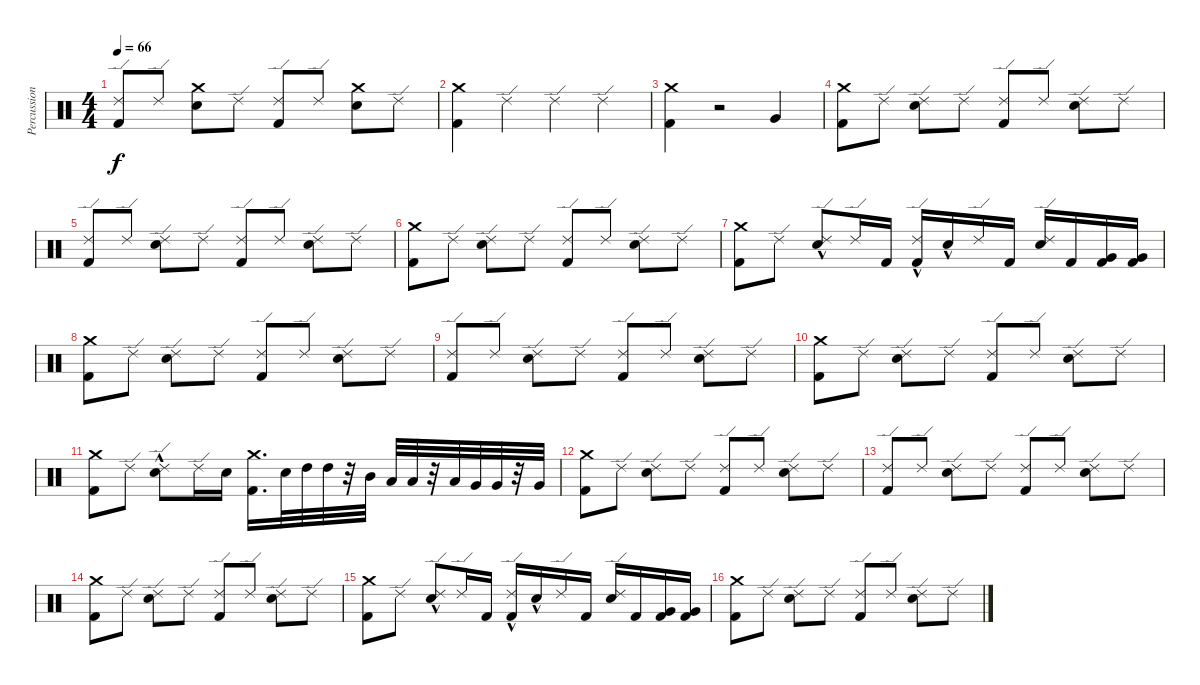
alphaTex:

\track ("Percussioni" "Percussion") {instrument percussion}
\staff {score}
\articulation defaults
\ts (4 4)
\tempo 66
\clef neutral
\ks c
("Ride (edge) 2" "Kick (hit) 2").8{dy f} "Ride (edge) 2".8 ("Crash medium (hit)" "Snare (hit) 2").8 "Ride (edge) 2".8 ("Ride (edge) 2" "Kick (hit) 2").8 "Ride (edge) 2".8 ("Crash medium (hit)" "Snare (hit) 2").8 "Ride (edge) 2".8 |
("Crash medium (hit)" "Kick (hit) 2").4 "Ride (edge) 2".4 "Ride (edge) 2".4 "Ride (edge) 2".4 |
("Crash medium (hit)" "Kick (hit) 2").4 r.2 "Very Low Tom (hit)".4 |
("Kick (hit) 2" "Crash medium (hit)").8 "Ride (edge) 2".8 ("Snare (hit) 2" "Ride (edge) 2").8 "Ride (edge) 2".8 ("Kick (hit) 2" "Ride (edge) 2").8 "Ride (edge) 2".8 ("Snare (hit) 2" "Ride (edge) 2").8 "Ride (edge) 2".8 |
("Ride (edge) 2" "Kick (hit) 2").8 "Ride (edge) 2".8 ("Ride (edge) 2" "Snare (hit) 2").8 "Ride (edge) 2".8 ("Ride (edge) 2" "Kick (hit) 2").8 "Ride (edge) 2".8 ("Ride (edge) 2" "Snare (hit) 2").8 "Ride (edge) 2".8 |
("Crash medium (hit)" "Kick (hit) 2").8 "Ride (edge) 2".8 ("Ride (edge) 2" "Snare (hit) 2").8 "Ride (edge) 2".8 ("Ride (edge) 2" "Kick (hit) 2").8 "Ride (edge) 2".8 ("Ride (edge) 2" "Snare (hit) 2").8 "Ride (edge) 2".8 |
("Kick (hit) 2" "Crash medium (hit)").8 "Ride (edge) 2".8 ("Snare (hit) 2"{hac} "Ride (edge) 2").8 "Ride (edge) 2".16 "Kick (hit) 2".16 ("Kick (hit) 2"{hac} "Ride (edge) 2").16 "Snare (hit) 2"{hac}.16 "Ride (edge) 2".16 "Kick (hit) 2".16 ("Snare (hit) 2" "Ride (edge) 2").16 "Kick (hit) 2".16 ("Kick (hit) 2" "Very Low Tom (hit)").16 ("Kick (hit) 2" "Very Low Tom (hit)").16 |
("Kick (hit) 2" "Crash medium (hit)").8 "Ride (edge) 2".8 ("Snare (hit) 2" "Ride (edge) 2").8 "Ride (edge) 2".8 ("Kick (hit) 2" "Ride (edge) 2").8 "Ride (edge) 2".8 ("Snare (hit) 2" "Ride (edge) 2").8 "Ride (edge) 2".8 |
("Ride (edge) 2" "Kick (hit) 2").8 "Ride (edge) 2".8 ("Ride (edge) 2" "Snare (hit) 2").8 "Ride (edge) 2".8 ("Ride (edge) 2" "Kick (hit) 2").8 "Ride (edge) 2".8 ("Ride (edge) 2" "Snare (hit) 2").8 "Ride (edge) 2".8 |
("Crash medium (hit)" "Kick (hit) 2").8 "Ride (edge) 2".8 ("Ride (edge) 2" "Snare (hit) 2").8 "Ride (edge) 2".8 ("Ride (edge) 2" "Kick (hit) 2").8 "Ride (edge) 2".8 ("Ride (edge) 2" "Snare (hit) 2").8 "Ride (edge) 2".8 |
("Crash medium (hit)" "Kick (hit) 2").8 "Ride (edge) 2".8 ("Snare (hit) 2"{hac} "Ride (edge) 2").8 "Ride (edge) 2".16 "Snare (hit) 2".16 ("Crash medium (hit)" "Kick (hit) 2").16{d} "Snare (hit) 2".32 "High Tom (hit)".32 "High Tom (hit)".32 r.32 "Mid Tom (hit)".32 "Low Tom (hit)".32 "Low Tom (hit)".32 r.32 "Low Tom (hit)".32 "Very Low Tom (hit)".32 "Very Low Tom (hit)".32 r.32 "Very Low Tom (hit)".32 |
("Kick (hit) 2" "Crash medium (hit)").8 "Ride (edge) 2".8 ("Snare (hit) 2" "Ride (edge) 2").8 "Ride (edge) 2".8 ("Kick (hit) 2" "Ride (edge) 2").8 "Ride (edge) 2".8 ("Snare (hit) 2" "Ride (edge) 2").8 "Ride (edge) 2".8 |
("Ride (edge) 2" "Kick (hit) 2").8 "Ride (edge) 2".8 ("Ride (edge) 2" "Snare (hit) 2").8 "Ride (edge) 2".8 ("Ride (edge) 2" "Kick (hit) 2").8 "Ride (edge) 2".8 ("Ride (edge) 2" "Snare (hit) 2").8 "Ride (edge) 2".8 |
("Crash medium (hit)" "Kick (hit) 2").8 "Ride (edge) 2".8 ("Ride (edge) 2" "Snare (hit) 2").8 "Ride (edge) 2".8 ("Ride (edge) 2" "Kick (hit) 2").8 "Ride (edge) 2".8 ("Ride (edge) 2" "Snare (hit) 2").8 "Ride (edge) 2".8 |
("Kick (hit) 2" "Crash medium (hit)").8 "Ride (edge) 2".8 ("Snare (hit) 2"{hac} "Ride (edge) 2").8 "Ride (edge) 2".16 "Kick (hit) 2".16 ("Kick (hit) 2"{hac} "Ride (edge) 2").16 "Snare (hit) 2"{hac}.16 "Ride (edge) 2".16 "Kick (hit) 2".16 ("Snare (hit) 2" "Ride (edge) 2").16 "Kick (hit) 2".16 ("Kick (hit) 2" "Very Low Tom (hit)").16 ("Kick (hit) 2" "Very Low Tom (hit)").16 |
("Kick (hit) 2" "Crash medium (hit)").8 "Ride (edge) 2".8 ("Snare (hit) 2" "Ride (edge) 2").8 "Ride (edge) 2".8 ("Kick (hit) 2" "Ride (edge) 2").8 "Ride (edge) 2".8 ("Snare (hit) 2" "Ride (edge) 2").8 "Ride (edge) 2".8
